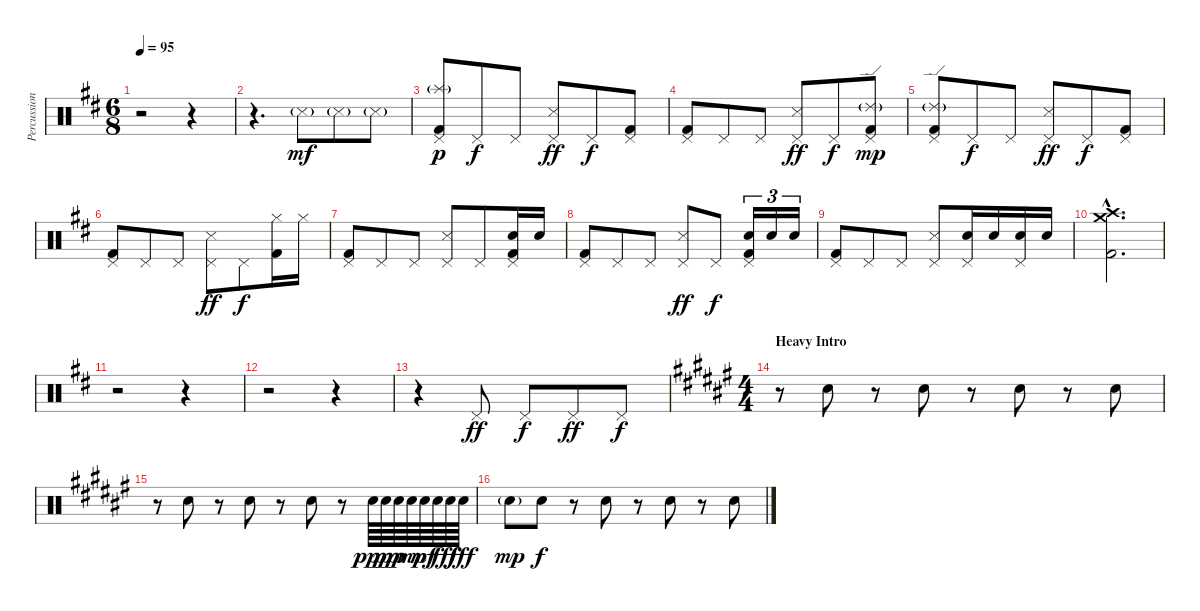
\track ("Percussions" "Percussion") {instrument percussion}
\staff {score}
\articulation defaults
\ts (6 8)
\tempo 95
\clef neutral
\ks d
r.2{dy mf} r.4 |
r.4{d} "Metronome (hit)"{g}.8 "Metronome (hit)"{g}.8 "Metronome (hit)"{g}.8 |
("Pedal Hi-Hat (hit)" "Splash (hit)"{g} "Kick (hit) 2").8{dy p} "Pedal Hi-Hat (hit)".8{dy f} "Pedal Hi-Hat (hit)".8 ("Pedal Hi-Hat (hit)" "Snare (side stick) 3").8{dy ff} "Pedal Hi-Hat (hit)".8{dy f} ("Pedal Hi-Hat (hit)" "Kick (hit) 2").8 |
("Pedal Hi-Hat (hit)" "Kick (hit) 2").8 "Pedal Hi-Hat (hit)".8 "Pedal Hi-Hat (hit)".8 ("Pedal Hi-Hat (hit)" "Snare (side stick) 3").8{dy ff} "Pedal Hi-Hat (hit)".8{dy f} ("Pedal Hi-Hat (hit)" "Ride (edge) 2"{g} "Kick (hit) 2").8{dy mp} |
("Pedal Hi-Hat (hit)" "Ride (edge) 2"{g} "Kick (hit) 2").8 "Pedal Hi-Hat (hit)".8{dy f} "Pedal Hi-Hat (hit)".8 ("Pedal Hi-Hat (hit)" "Snare (side stick) 3").8{dy ff} "Pedal Hi-Hat (hit)".8{dy f} ("Pedal Hi-Hat (hit)" "Kick (hit) 2").8 |
("Pedal Hi-Hat (hit)" "Kick (hit) 2").8 "Pedal Hi-Hat (hit)".8 "Pedal Hi-Hat (hit)".8 ("Pedal Hi-Hat (hit)" "Snare (side stick) 3").8{dy ff} "Pedal Hi-Hat (hit)".8{dy f} ("Hi-Hat (closed)" "Kick (hit) 2").16 "Hi-Hat (closed)".16 |
("Pedal Hi-Hat (hit)" "Kick (hit) 2").8 "Pedal Hi-Hat (hit)".8 "Pedal Hi-Hat (hit)".8 ("Pedal Hi-Hat (hit)" "Snare (side stick) 3").8 "Pedal Hi-Hat (hit)".8 ("Pedal Hi-Hat (hit)" "Snare (hit) 2" "Kick (hit) 2").16 "Snare (hit) 2".16 |
("Pedal Hi-Hat (hit)" "Kick (hit) 2").8 "Pedal Hi-Hat (hit)".8 "Pedal Hi-Hat (hit)".8 ("Pedal Hi-Hat (hit)" "Snare (side stick) 3").8{dy ff} "Pedal Hi-Hat (hit)".8{dy f} ("Pedal Hi-Hat (hit)" "Snare (hit) 2" "Kick (hit) 2").16{tu (3 2)} "Snare (hit) 2".16{tu (3 2)} "Snare (hit) 2".16{tu (3 2)} |
("Pedal Hi-Hat (hit)" "Kick (hit) 2").8 "Pedal Hi-Hat (hit)".8 "Pedal Hi-Hat (hit)".8 ("Pedal Hi-Hat (hit)" "Snare (side stick) 3").8 ("Pedal Hi-Hat (hit)" "Electric Snare (hit)").16 "Electric Snare (hit)".16 ("Pedal Hi-Hat (hit)" "Electric Snare (hit)").16 "Electric Snare (hit)".16 |
("Crash high (hit)"{hac} "Crash medium (hit)"{hac} "Kick (hit) 2"{hac}).2{d} |
r.2 r.4 |
r.2 r.4 |
r.4 "Pedal Hi-Hat (hit)".8{dy ff} "Pedal Hi-Hat (hit)".8{dy f} "Pedal Hi-Hat (hit)".8{dy ff} "Pedal Hi-Hat (hit)".8{dy f} |
\ts (4 4)
\section ("" "Heavy Intro")
\ks d#minor
r.8 "Hand Clap (hit)".8 r.8 "Hand Clap (hit)".8 r.8 "Hand Clap (hit)".8 r.8 "Hand Clap (hit)".8 |
r.8 "Hand Clap (hit)".8 r.8 "Hand Clap (hit)".8 r.8 "Hand Clap (hit)".8 r.8 "Hand Clap (hit)".64{dy ppp} "Hand Clap (hit)".64{dy pp} "Hand Clap (hit)".64{dy p} "Hand Clap (hit)".64{dy mp} "Hand Clap (hit)".64{dy mf} "Hand Clap (hit)".64{dy f} "Hand Clap (hit)".64{dy ff} "Hand Clap (hit)".64{dy fff} |
"Hand Clap (hit)"{g}.8{dy mp} "Hand Clap (hit)".8{dy f} r.8 "Hand Clap (hit)".8 r.8 "Hand Clap (hit)".8 r.8 "Hand Clap (hit)".8
